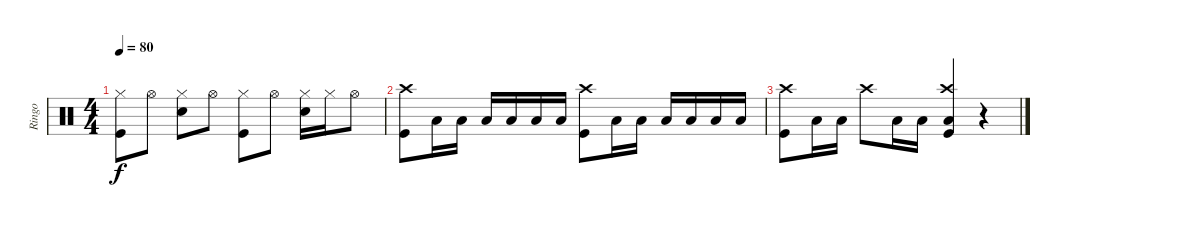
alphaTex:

\track ("Ringo" "Ringo") {instrument percussion}
\staff {score}
\articulation defaults
\ts (4 4)
\tempo 80
\clef neutral
\ks c
("Hi-Hat (closed)" "Kick (hit)").8{dy f} "Hi-Hat (open)".8 ("Hi-Hat (closed)" "Snare (hit) 2").8 "Hi-Hat (open)".8 ("Hi-Hat (closed)" "Kick (hit)").8 "Hi-Hat (open)".8 ("Hi-Hat (closed)" "Snare (hit) 2").16 "Hi-Hat (closed)".16 "Hi-Hat (open)".8 |
("Crash high (hit)" "Kick (hit)").8 "Low Tom (hit)".16 "Low Tom (hit)".16 "Low Tom (hit)".16 "Low Tom (hit)".16 "Low Tom (hit)".16 "Low Tom (hit)".16 ("Crash high (hit)" "Kick (hit)").8 "Low Tom (hit)".16 "Low Tom (hit)".16 "Low Tom (hit)".16 "Low Tom (hit)".16 "Low Tom (hit)".16 "Low Tom (hit)".16 |
("Crash high (hit)" "Kick (hit)").8 "Low Tom (hit)".16 "Low Tom (hit)".16 "Crash high (hit)".8 "Low Tom (hit)".16 "Low Tom (hit)".16 ("Crash high (hit)" "Low Tom (hit)" "Kick (hit)").4 r.4
